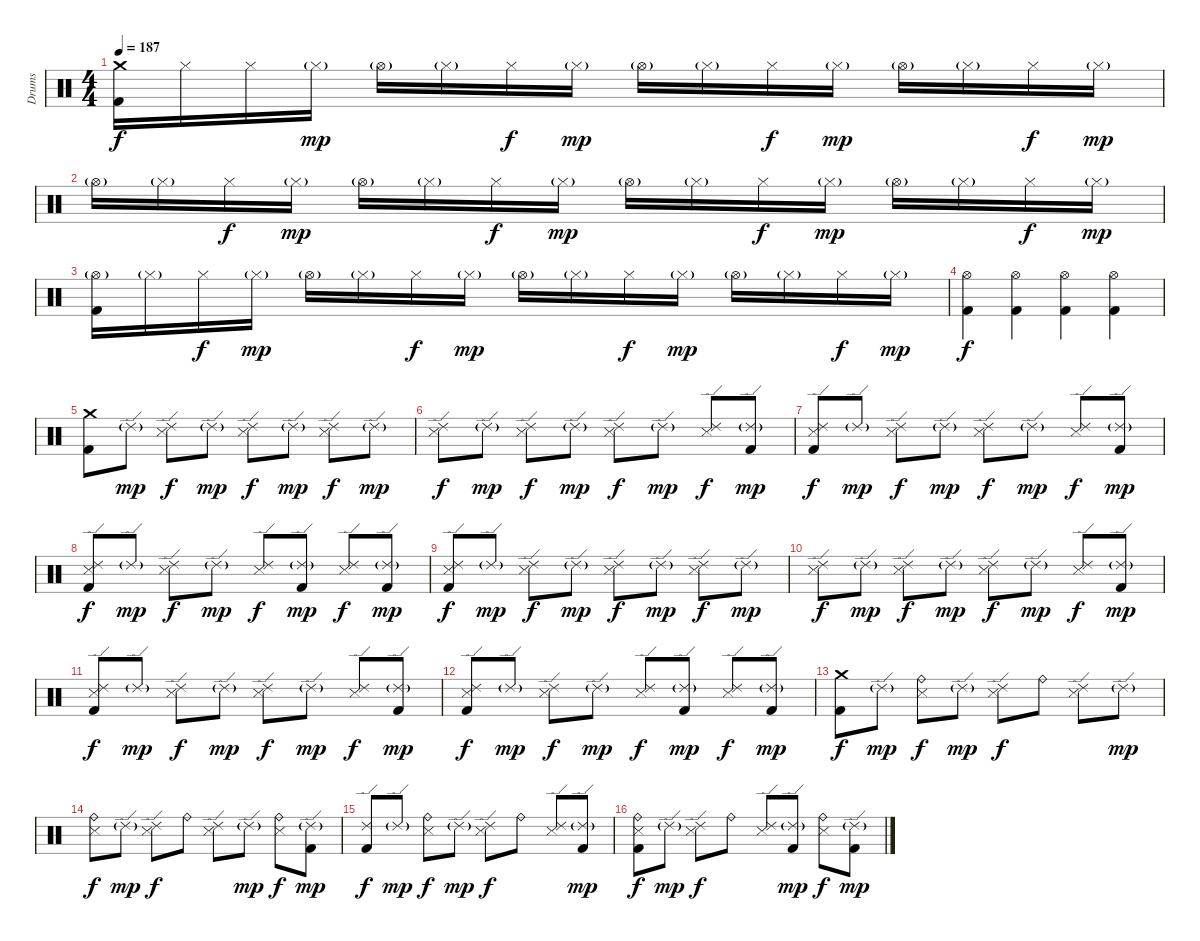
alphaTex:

\track ("Drums" "Drums") {instrument percussion}
\staff {score}
\articulation defaults
\ts (4 4)
\tempo 187
\clef neutral
\ks c
("Crash medium (hit)" "Kick (hit) 2").16{dy f} "Hi-Hat (closed)".16 "Hi-Hat (closed)".16 "Hi-Hat (closed)"{g}.16{dy mp} "Hi-Hat (open)"{g}.16 "Hi-Hat (closed)"{g}.16 "Hi-Hat (closed)".16{dy f} "Hi-Hat (closed)"{g}.16{dy mp} "Hi-Hat (open)"{g}.16 "Hi-Hat (closed)"{g}.16 "Hi-Hat (closed)".16{dy f} "Hi-Hat (closed)"{g}.16{dy mp} "Hi-Hat (open)"{g}.16 "Hi-Hat (closed)"{g}.16 "Hi-Hat (closed)".16{dy f} "Hi-Hat (closed)"{g}.16{dy mp} |
"Hi-Hat (open)"{g}.16 "Hi-Hat (closed)"{g}.16 "Hi-Hat (closed)".16{dy f} "Hi-Hat (closed)"{g}.16{dy mp} "Hi-Hat (open)"{g}.16 "Hi-Hat (closed)"{g}.16 "Hi-Hat (closed)".16{dy f} "Hi-Hat (closed)"{g}.16{dy mp} "Hi-Hat (open)"{g}.16 "Hi-Hat (closed)"{g}.16 "Hi-Hat (closed)".16{dy f} "Hi-Hat (closed)"{g}.16{dy mp} "Hi-Hat (open)"{g}.16 "Hi-Hat (closed)"{g}.16 "Hi-Hat (closed)".16{dy f} "Hi-Hat (closed)"{g}.16{dy mp} |
("Hi-Hat (open)"{g} "Kick (hit) 2").16 "Hi-Hat (closed)"{g}.16 "Hi-Hat (closed)".16{dy f} "Hi-Hat (closed)"{g}.16{dy mp} "Hi-Hat (open)"{g}.16 "Hi-Hat (closed)"{g}.16 "Hi-Hat (closed)".16{dy f} "Hi-Hat (closed)"{g}.16{dy mp} "Hi-Hat (open)"{g}.16 "Hi-Hat (closed)"{g}.16 "Hi-Hat (closed)".16{dy f} "Hi-Hat (closed)"{g}.16{dy mp} "Hi-Hat (open)"{g}.16 "Hi-Hat (closed)"{g}.16 "Hi-Hat (closed)".16{dy f} "Hi-Hat (closed)"{g}.16{dy mp} |
("Hi-Hat (open)" "Kick (hit) 2").4{dy f volume 10} ("Hi-Hat (open)" "Kick (hit) 2").4{volume 14} ("Hi-Hat (open)" "Kick (hit) 2").4 ("Hi-Hat (open)" "Kick (hit) 2").4 |
("Crash medium (hit)" "Kick (hit) 2").8 "Ride (edge) 2"{g}.8{dy mp} ("Ride (edge) 2" "Snare (side stick) 3").8{dy f} "Ride (edge) 2"{g}.8{dy mp} ("Ride (edge) 2" "Snare (side stick) 3").8{dy f} "Ride (edge) 2"{g}.8{dy mp} ("Ride (edge) 2" "Snare (side stick) 3").8{dy f} "Ride (edge) 2"{g}.8{dy mp} |
("Ride (edge) 2" "Snare (side stick) 3").8{dy f} "Ride (edge) 2"{g}.8{dy mp} ("Ride (edge) 2" "Snare (side stick) 3").8{dy f} "Ride (edge) 2"{g}.8{dy mp} ("Ride (edge) 2" "Snare (side stick) 3").8{dy f} "Ride (edge) 2"{g}.8{dy mp} ("Ride (edge) 2" "Snare (side stick) 3").8{dy f} ("Ride (edge) 2"{g} "Kick (hit) 2").8{dy mp} |
("Ride (edge) 2" "Snare (side stick) 3" "Kick (hit) 2").8{dy f} "Ride (edge) 2"{g}.8{dy mp} ("Ride (edge) 2" "Snare (side stick) 3").8{dy f} "Ride (edge) 2"{g}.8{dy mp} ("Ride (edge) 2" "Snare (side stick) 3").8{dy f} "Ride (edge) 2"{g}.8{dy mp} ("Ride (edge) 2" "Snare (side stick) 3").8{dy f} ("Ride (edge) 2"{g} "Kick (hit) 2").8{dy mp} |
("Ride (edge) 2" "Snare (side stick) 3" "Kick (hit) 2").8{dy f} "Ride (edge) 2"{g}.8{dy mp} ("Ride (edge) 2" "Snare (side stick) 3").8{dy f} "Ride (edge) 2"{g}.8{dy mp} ("Ride (edge) 2" "Snare (side stick) 3").8{dy f} ("Ride (edge) 2"{g} "Kick (hit) 2").8{dy mp} ("Ride (edge) 2" "Snare (side stick) 3").8{dy f} ("Ride (edge) 2"{g} "Kick (hit) 2").8{dy mp} |
("Ride (edge) 2" "Snare (side stick) 3" "Kick (hit) 2").8{dy f} "Ride (edge) 2"{g}.8{dy mp} ("Ride (edge) 2" "Snare (side stick) 3").8{dy f} "Ride (edge) 2"{g}.8{dy mp} ("Ride (edge) 2" "Snare (side stick) 3").8{dy f} "Ride (edge) 2"{g}.8{dy mp} ("Ride (edge) 2" "Snare (side stick) 3").8{dy f} "Ride (edge) 2"{g}.8{dy mp} |
("Ride (edge) 2" "Snare (side stick) 3").8{dy f} "Ride (edge) 2"{g}.8{dy mp} ("Ride (edge) 2" "Snare (side stick) 3").8{dy f} "Ride (edge) 2"{g}.8{dy mp} ("Ride (edge) 2" "Snare (side stick) 3").8{dy f} "Ride (edge) 2"{g}.8{dy mp} ("Ride (edge) 2" "Snare (side stick) 3").8{dy f} ("Ride (edge) 2"{g} "Kick (hit) 2").8{dy mp} |
("Ride (edge) 2" "Snare (side stick) 3" "Kick (hit) 2").8{dy f} "Ride (edge) 2"{g}.8{dy mp} ("Ride (edge) 2" "Snare (side stick) 3").8{dy f} "Ride (edge) 2"{g}.8{dy mp} ("Ride (edge) 2" "Snare (side stick) 3").8{dy f} "Ride (edge) 2"{g}.8{dy mp} ("Ride (edge) 2" "Snare (side stick) 3").8{dy f} ("Ride (edge) 2"{g} "Kick (hit) 2").8{dy mp} |
("Ride (edge) 2" "Snare (side stick) 3" "Kick (hit) 2").8{dy f} "Ride (edge) 2"{g}.8{dy mp} ("Ride (edge) 2" "Snare (side stick) 3").8{dy f} "Ride (edge) 2"{g}.8{dy mp} ("Ride (edge) 2" "Snare (side stick) 3").8{dy f} ("Ride (edge) 2"{g} "Kick (hit) 2").8{dy mp} ("Ride (edge) 2" "Snare (side stick) 3").8{dy f} ("Ride (edge) 2"{g} "Kick (hit) 2").8{dy mp} |
("Crash medium (hit)" "Kick (hit) 2").8{dy f} "Ride (edge) 2"{g}.8{dy mp} ("Ride (bell)" "Snare (side stick) 3").8{dy f} "Ride (edge) 2"{g}.8{dy mp} ("Ride (edge) 2" "Snare (side stick) 3").8{dy f} "Ride (bell)".8 ("Ride (edge) 2" "Snare (side stick) 3").8 "Ride (edge) 2"{g}.8{dy mp} |
("Ride (bell)" "Snare (side stick) 3").8{dy f} "Ride (edge) 2"{g}.8{dy mp} ("Ride (edge) 2" "Snare (side stick) 3").8{dy f} "Ride (bell)".8 ("Ride (edge) 2" "Snare (side stick) 3").8 "Ride (edge) 2"{g}.8{dy mp} ("Ride (bell)" "Snare (side stick) 3").8{dy f} ("Ride (edge) 2"{g} "Kick (hit) 2").8{dy mp} |
("Ride (edge) 2" "Kick (hit) 2").8{dy f} "Ride (edge) 2"{g}.8{dy mp} ("Ride (bell)" "Snare (side stick) 3").8{dy f} "Ride (edge) 2"{g}.8{dy mp} ("Ride (edge) 2" "Snare (side stick) 3").8{dy f} "Ride (bell)".8 ("Ride (edge) 2" "Snare (side stick) 3").8 ("Ride (edge) 2"{g} "Kick (hit) 2").8{dy mp} |
("Ride (bell)" "Snare (side stick) 3" "Kick (hit) 2").8{dy f} "Ride (edge) 2"{g}.8{dy mp} ("Ride (edge) 2" "Snare (side stick) 3").8{dy f} "Ride (bell)".8 ("Ride (edge) 2" "Snare (side stick) 3").8 ("Ride (edge) 2"{g} "Kick (hit) 2").8{dy mp} ("Ride (bell)" "Snare (side stick) 3").8{dy f} ("Ride (edge) 2"{g} "Kick (hit) 2").8{dy mp}
